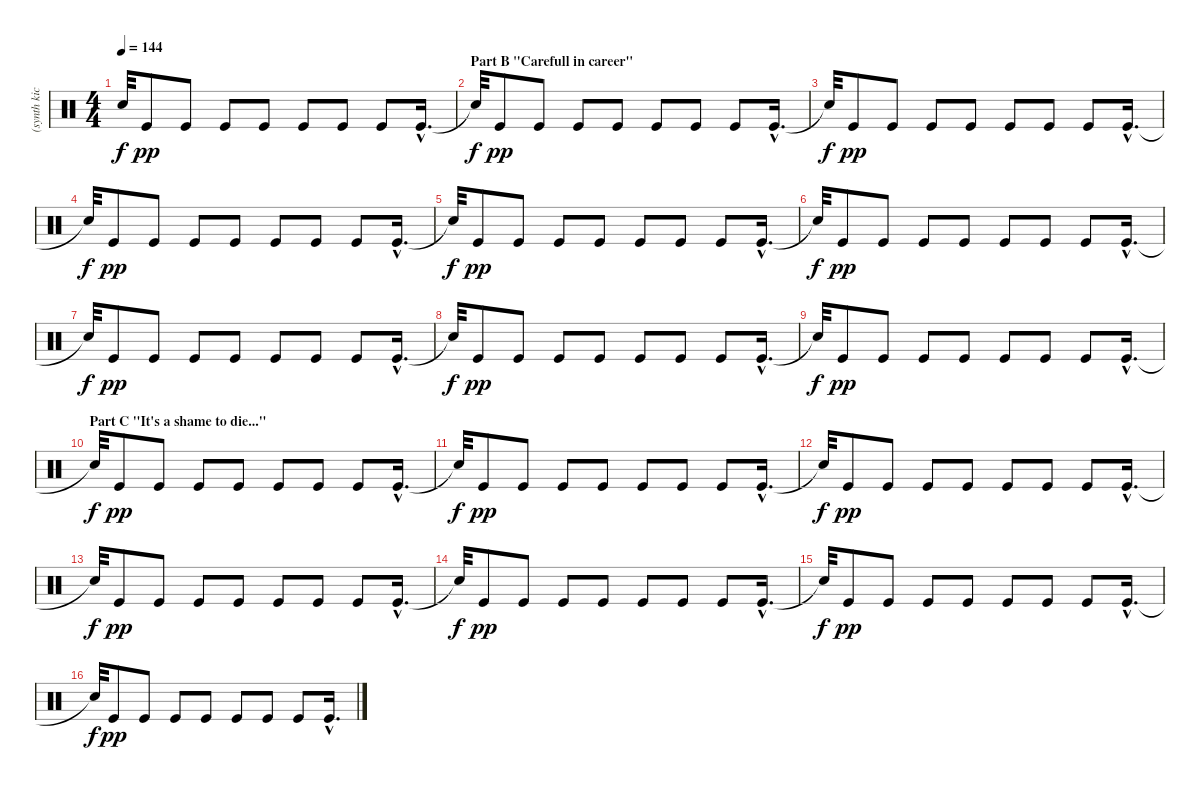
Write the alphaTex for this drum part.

\track ("(synth kick loop reverb)" "(synth kic") {instrument percussion}
\staff {score}
\articulation defaults
\ts (4 4)
\tempo 144
\clef neutral
\ks c "Snare (hit)"{t}.32{dy f} "Kick (hit)".8{dy pp} "Kick (hit)".8 "Kick (hit)".8 "Kick (hit)".8 "Kick (hit)".8 "Kick (hit)".8 "Kick (hit)".8 "Kick (hit)"{hac}.16{d}
|
\section ("" "Part B \"Carefull in career\"")
"Snare (hit)"{t}.32{dy f} "Kick (hit)".8{dy pp} "Kick (hit)".8 "Kick (hit)".8 "Kick (hit)".8 "Kick (hit)".8 "Kick (hit)".8 "Kick (hit)".8 "Kick (hit)"{hac}.16{d} |
"Snare (hit)"{t}.32{dy f} "Kick (hit)".8{dy pp} "Kick (hit)".8 "Kick (hit)".8 "Kick (hit)".8 "Kick (hit)".8 "Kick (hit)".8 "Kick (hit)".8 "Kick (hit)"{hac}.16{d} |
"Snare (hit)"{t}.32{dy f} "Kick (hit)".8{dy pp} "Kick (hit)".8 "Kick (hit)".8 "Kick (hit)".8 "Kick (hit)".8 "Kick (hit)".8 "Kick (hit)".8 "Kick (hit)"{hac}.16{d} |
"Snare (hit)"{t}.32{dy f} "Kick (hit)".8{dy pp} "Kick (hit)".8 "Kick (hit)".8 "Kick (hit)".8 "Kick (hit)".8 "Kick (hit)".8 "Kick (hit)".8 "Kick (hit)"{hac}.16{d} |
"Snare (hit)"{t}.32{dy f} "Kick (hit)".8{dy pp} "Kick (hit)".8 "Kick (hit)".8 "Kick (hit)".8 "Kick (hit)".8 "Kick (hit)".8 "Kick (hit)".8 "Kick (hit)"{hac}.16{d} |
"Snare (hit)"{t}.32{dy f} "Kick (hit)".8{dy pp} "Kick (hit)".8 "Kick (hit)".8 "Kick (hit)".8 "Kick (hit)".8 "Kick (hit)".8 "Kick (hit)".8 "Kick (hit)"{hac}.16{d} |
"Snare (hit)"{t}.32{dy f} "Kick (hit)".8{dy pp} "Kick (hit)".8 "Kick (hit)".8 "Kick (hit)".8 "Kick (hit)".8 "Kick (hit)".8 "Kick (hit)".8 "Kick (hit)"{hac}.16{d} |
"Snare (hit)"{t}.32{dy f} "Kick (hit)".8{dy pp} "Kick (hit)".8 "Kick (hit)".8 "Kick (hit)".8 "Kick (hit)".8 "Kick (hit)".8 "Kick (hit)".8 "Kick (hit)"{hac}.16{d} |
\section ("" "Part C \"It's a shame to die...\"")
"Snare (hit)"{t}.32{dy f} "Kick (hit)".8{dy pp} "Kick (hit)".8 "Kick (hit)".8 "Kick (hit)".8 "Kick (hit)".8 "Kick (hit)".8 "Kick (hit)".8 "Kick (hit)"{hac}.16{d} |
"Snare (hit)"{t}.32{dy f} "Kick (hit)".8{dy pp} "Kick (hit)".8 "Kick (hit)".8 "Kick (hit)".8 "Kick (hit)".8 "Kick (hit)".8 "Kick (hit)".8 "Kick (hit)"{hac}.16{d} |
"Snare (hit)"{t}.32{dy f} "Kick (hit)".8{dy pp} "Kick (hit)".8 "Kick (hit)".8 "Kick (hit)".8 "Kick (hit)".8 "Kick (hit)".8 "Kick (hit)".8 "Kick (hit)"{hac}.16{d} |
"Snare (hit)"{t}.32{dy f} "Kick (hit)".8{dy pp} "Kick (hit)".8 "Kick (hit)".8 "Kick (hit)".8 "Kick (hit)".8 "Kick (hit)".8 "Kick (hit)".8 "Kick (hit)"{hac}.16{d} |
"Snare (hit)"{t}.32{dy f} "Kick (hit)".8{dy pp} "Kick (hit)".8 "Kick (hit)".8 "Kick (hit)".8 "Kick (hit)".8 "Kick (hit)".8 "Kick (hit)".8 "Kick (hit)"{hac}.16{d} |
"Snare (hit)"{t}.32{dy f} "Kick (hit)".8{dy pp} "Kick (hit)".8 "Kick (hit)".8 "Kick (hit)".8 "Kick (hit)".8 "Kick (hit)".8 "Kick (hit)".8 "Kick (hit)"{hac}.16{d} |
"Snare (hit)"{t}.32{dy f} "Kick (hit)".8{dy pp} "Kick (hit)".8 "Kick (hit)".8 "Kick (hit)".8 "Kick (hit)".8 "Kick (hit)".8 "Kick (hit)".8 "Kick (hit)"{hac}.16{d}
